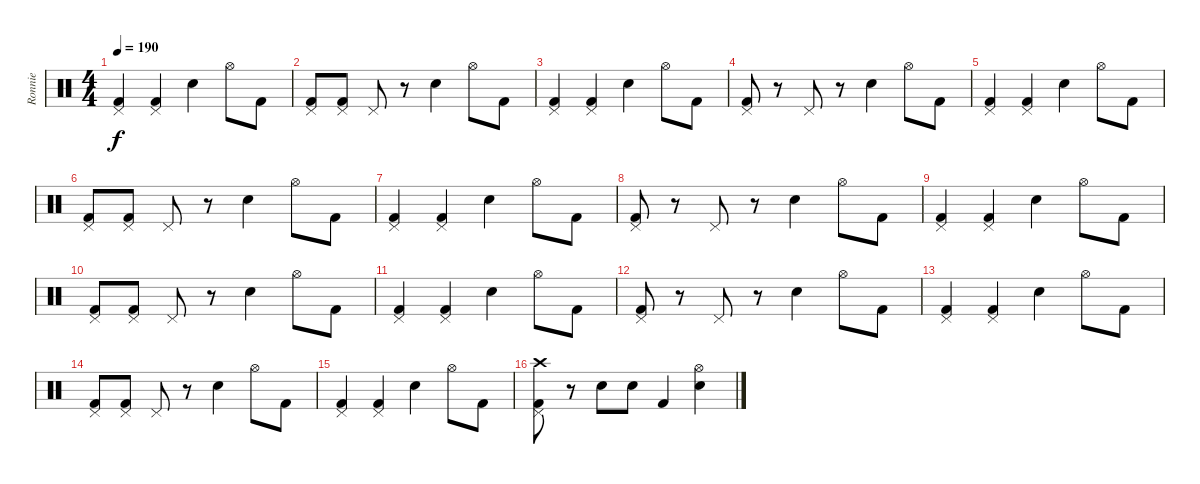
\track ("Ronnie" "Ronnie") {instrument percussion}
\staff {score}
\articulation defaults
\ts (4 4)
\tempo 190
\clef neutral
\ks c
("Pedal Hi-Hat (hit)" "Kick (hit) 2").4{dy f} ("Pedal Hi-Hat (hit)" "Kick (hit) 2").4 "Electric Snare (hit)".4 "Hi-Hat (open)".8 "Kick (hit) 2".8 |
("Pedal Hi-Hat (hit)" "Kick (hit) 2").8 ("Pedal Hi-Hat (hit)" "Kick (hit) 2").8 "Pedal Hi-Hat (hit)".8 r.8 "Electric Snare (hit)".4 "Hi-Hat (open)".8 "Kick (hit) 2".8 |
("Pedal Hi-Hat (hit)" "Kick (hit) 2").4 ("Pedal Hi-Hat (hit)" "Kick (hit) 2").4 "Electric Snare (hit)".4 "Hi-Hat (open)".8 "Kick (hit) 2".8 |
("Pedal Hi-Hat (hit)" "Kick (hit) 2").8 r.8 "Pedal Hi-Hat (hit)".8 r.8 "Electric Snare (hit)".4 "Hi-Hat (open)".8 "Kick (hit) 2".8 |
("Pedal Hi-Hat (hit)" "Kick (hit) 2").4 ("Pedal Hi-Hat (hit)" "Kick (hit) 2").4 "Electric Snare (hit)".4 "Hi-Hat (open)".8 "Kick (hit) 2".8 |
("Pedal Hi-Hat (hit)" "Kick (hit) 2").8 ("Pedal Hi-Hat (hit)" "Kick (hit) 2").8 "Pedal Hi-Hat (hit)".8 r.8 "Electric Snare (hit)".4 "Hi-Hat (open)".8 "Kick (hit) 2".8 |
("Pedal Hi-Hat (hit)" "Kick (hit) 2").4 ("Pedal Hi-Hat (hit)" "Kick (hit) 2").4 "Electric Snare (hit)".4 "Hi-Hat (open)".8 "Kick (hit) 2".8 |
("Pedal Hi-Hat (hit)" "Kick (hit) 2").8 r.8 "Pedal Hi-Hat (hit)".8 r.8 "Electric Snare (hit)".4 "Hi-Hat (open)".8 "Kick (hit) 2".8 |
("Pedal Hi-Hat (hit)" "Kick (hit) 2").4 ("Pedal Hi-Hat (hit)" "Kick (hit) 2").4 "Electric Snare (hit)".4 "Hi-Hat (open)".8 "Kick (hit) 2".8 |
("Pedal Hi-Hat (hit)" "Kick (hit) 2").8 ("Pedal Hi-Hat (hit)" "Kick (hit) 2").8 "Pedal Hi-Hat (hit)".8 r.8 "Electric Snare (hit)".4 "Hi-Hat (open)".8 "Kick (hit) 2".8 |
("Pedal Hi-Hat (hit)" "Kick (hit) 2").4 ("Pedal Hi-Hat (hit)" "Kick (hit) 2").4 "Electric Snare (hit)".4 "Hi-Hat (open)".8 "Kick (hit) 2".8 |
("Pedal Hi-Hat (hit)" "Kick (hit) 2").8 r.8 "Pedal Hi-Hat (hit)".8 r.8 "Electric Snare (hit)".4 "Hi-Hat (open)".8 "Kick (hit) 2".8 |
("Pedal Hi-Hat (hit)" "Kick (hit) 2").4 ("Pedal Hi-Hat (hit)" "Kick (hit) 2").4 "Electric Snare (hit)".4 "Hi-Hat (open)".8 "Kick (hit) 2".8 |
("Pedal Hi-Hat (hit)" "Kick (hit) 2").8 ("Pedal Hi-Hat (hit)" "Kick (hit) 2").8 "Pedal Hi-Hat (hit)".8 r.8 "Electric Snare (hit)".4 "Hi-Hat (open)".8 "Kick (hit) 2".8 |
("Pedal Hi-Hat (hit)" "Kick (hit) 2").4 ("Pedal Hi-Hat (hit)" "Kick (hit) 2").4 "Electric Snare (hit)".4 "Hi-Hat (open)".8 "Kick (hit) 2".8 |
("Pedal Hi-Hat (hit)" "Crash high (hit)" "Kick (hit) 2").8 r.8 "Electric Snare (hit)".8 "Electric Snare (hit)".8 "Kick (hit) 2".4 ("Electric Snare (hit)" "Hi-Hat (open)").4
